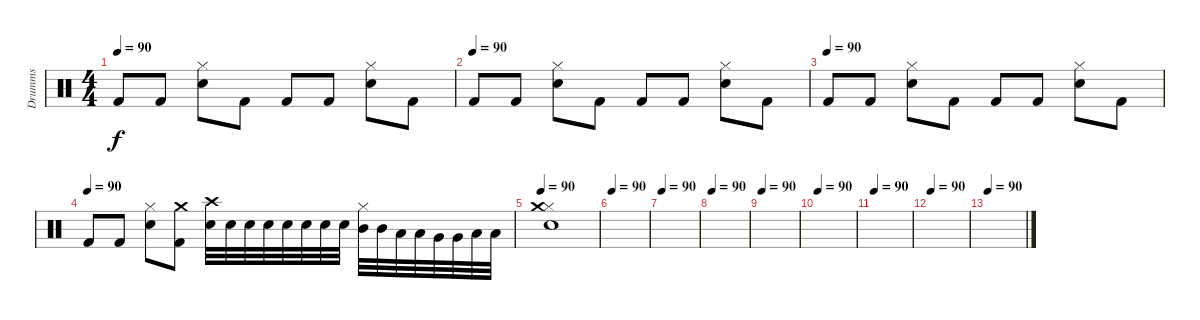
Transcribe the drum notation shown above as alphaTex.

\track ("Drumms" "Drumms") {instrument percussion}
\staff {score}
\articulation defaults
\ts (4 4)
\tempo 90
\clef neutral
\ks c "Kick (hit) 2".8{dy f} "Kick (hit) 2".8
("Hi-Hat (closed)" "Snare (hit) 2").8 "Kick (hit) 2".8 "Kick (hit) 2".8 "Kick (hit) 2".8 ("Hi-Hat (closed)" "Snare (hit) 2").8 "Kick (hit) 2".8 |
\tempo (90)
"Kick (hit) 2".8 "Kick (hit) 2".8 ("Hi-Hat (closed)" "Snare (hit) 2").8 "Kick (hit) 2".8 "Kick (hit) 2".8 "Kick (hit) 2".8 ("Hi-Hat (closed)" "Snare (hit) 2").8 "Kick (hit) 2".8 |
\tempo (90)
"Kick (hit) 2".8 "Kick (hit) 2".8 ("Hi-Hat (closed)" "Snare (hit) 2").8 "Kick (hit) 2".8 "Kick (hit) 2".8 "Kick (hit) 2".8 ("Hi-Hat (closed)" "Snare (hit) 2").8 "Kick (hit) 2".8 |
\tempo (90)
"Kick (hit) 2".8 "Kick (hit) 2".8 ("Hi-Hat (closed)" "Snare (hit) 2").8 ("Crash medium (hit)" "Kick (hit) 2").8 ("Crash high (hit)" "Snare (hit) 2").32 "Snare (hit) 2".32 "Snare (hit) 2".32 "Snare (hit) 2".32 "Electric Snare (hit)".32 "Electric Snare (hit)".32 "Electric Snare (hit)".32 "Electric Snare (hit)".32 ("Hi-Hat (closed)" "Mid Tom (hit)").32 "Mid Tom (hit)".32 "Low Tom (hit)".32 "Low Tom (hit)".32 "Very Low Tom (hit)".32 "Very Low Tom (hit)".32 "Low Floor Tom (hit)".32 "Low Floor Tom (hit)".32 |
\tempo 90
("Hi-Hat (closed)" "Snare (hit) 2" "Crash medium (hit)").1 |
\tempo 90
|
\tempo 90
|
\tempo 90
|
\tempo 90
|
\tempo 90
|
\tempo 90
|
\tempo 90
|
\tempo 90
